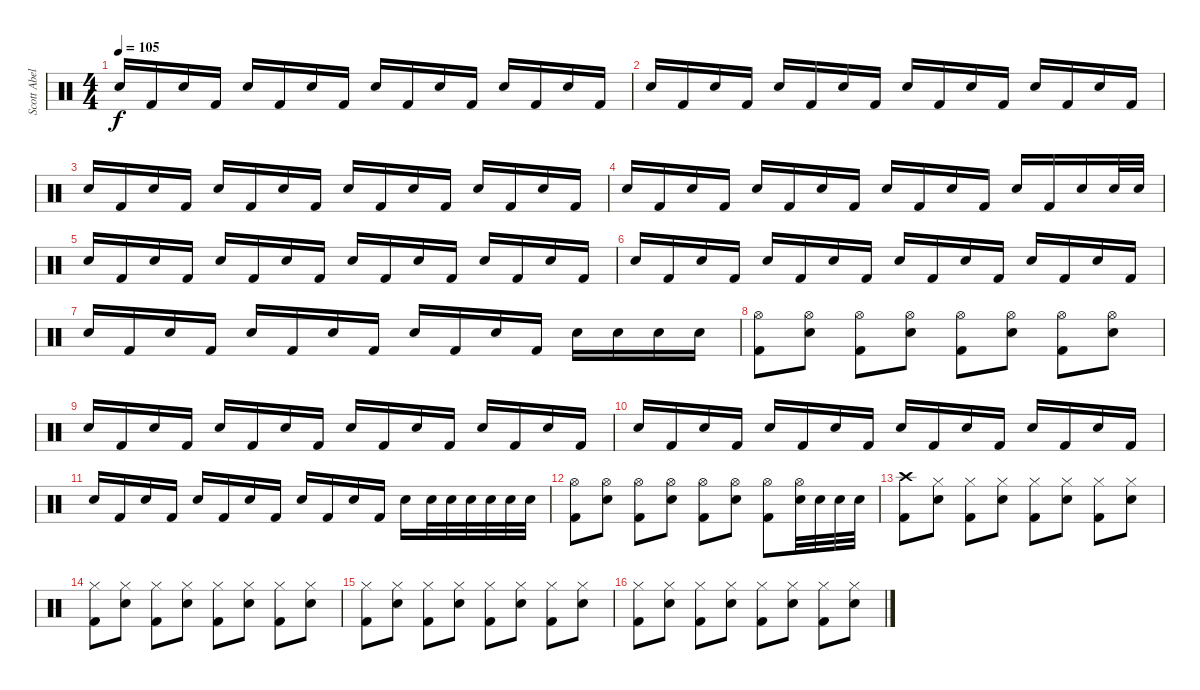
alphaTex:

\track ("Scott Abels - Drums" "Scott Abel") {instrument percussion}
\staff {score}
\articulation defaults
\ts (4 4)
\tempo 105
\clef neutral
\ks c "Electric Snare (hit)".16{dy f} "Kick (hit) 2".16 "Electric Snare (hit)".16 "Kick (hit) 2".16 "Electric Snare (hit)".16 "Kick (hit) 2".16 "Electric Snare (hit)".16 "Kick (hit) 2".16 "Electric Snare (hit)".16 "Kick (hit) 2".16 "Electric Snare (hit)".16 "Kick (hit) 2".16 "Electric Snare (hit)".16 "Kick (hit) 2".16 "Electric Snare (hit)".16 "Kick (hit) 2".16
|
"Electric Snare (hit)".16 "Kick (hit) 2".16 "Electric Snare (hit)".16 "Kick (hit) 2".16 "Electric Snare (hit)".16 "Kick (hit) 2".16 "Electric Snare (hit)".16 "Kick (hit) 2".16 "Electric Snare (hit)".16 "Kick (hit) 2".16 "Electric Snare (hit)".16 "Kick (hit) 2".16 "Electric Snare (hit)".16 "Kick (hit) 2".16 "Electric Snare (hit)".16 "Kick (hit) 2".16 |
"Electric Snare (hit)".16 "Kick (hit) 2".16 "Electric Snare (hit)".16 "Kick (hit) 2".16 "Electric Snare (hit)".16 "Kick (hit) 2".16 "Electric Snare (hit)".16 "Kick (hit) 2".16 "Electric Snare (hit)".16 "Kick (hit) 2".16 "Electric Snare (hit)".16 "Kick (hit) 2".16 "Electric Snare (hit)".16 "Kick (hit) 2".16 "Electric Snare (hit)".16 "Kick (hit) 2".16 |
"Electric Snare (hit)".16 "Kick (hit) 2".16 "Electric Snare (hit)".16 "Kick (hit) 2".16 "Electric Snare (hit)".16 "Kick (hit) 2".16 "Electric Snare (hit)".16 "Kick (hit) 2".16 "Electric Snare (hit)".16 "Kick (hit) 2".16 "Electric Snare (hit)".16 "Kick (hit) 2".16 "Electric Snare (hit)".16 "Kick (hit) 2".16 "Electric Snare (hit)".16 "Electric Snare (hit)".32 "Electric Snare (hit)".32 |
"Electric Snare (hit)".16 "Kick (hit) 2".16 "Electric Snare (hit)".16 "Kick (hit) 2".16 "Electric Snare (hit)".16 "Kick (hit) 2".16 "Electric Snare (hit)".16 "Kick (hit) 2".16 "Electric Snare (hit)".16 "Kick (hit) 2".16 "Electric Snare (hit)".16 "Kick (hit) 2".16 "Electric Snare (hit)".16 "Kick (hit) 2".16 "Electric Snare (hit)".16 "Kick (hit) 2".16 |
"Electric Snare (hit)".16 "Kick (hit) 2".16 "Electric Snare (hit)".16 "Kick (hit) 2".16 "Electric Snare (hit)".16 "Kick (hit) 2".16 "Electric Snare (hit)".16 "Kick (hit) 2".16 "Electric Snare (hit)".16 "Kick (hit) 2".16 "Electric Snare (hit)".16 "Kick (hit) 2".16 "Electric Snare (hit)".16 "Kick (hit) 2".16 "Electric Snare (hit)".16 "Kick (hit) 2".16 |
"Electric Snare (hit)".16 "Kick (hit) 2".16 "Electric Snare (hit)".16 "Kick (hit) 2".16 "Electric Snare (hit)".16 "Kick (hit) 2".16 "Electric Snare (hit)".16 "Kick (hit) 2".16 "Electric Snare (hit)".16 "Kick (hit) 2".16 "Electric Snare (hit)".16 "Kick (hit) 2".16 "Electric Snare (hit)".16 "Electric Snare (hit)".16 "Electric Snare (hit)".16 "Electric Snare (hit)".16 |
("Hi-Hat (open)" "Kick (hit) 2").8 ("Hi-Hat (open)" "Electric Snare (hit)").8 ("Hi-Hat (open)" "Kick (hit) 2").8 ("Hi-Hat (open)" "Electric Snare (hit)").8 ("Hi-Hat (open)" "Kick (hit) 2").8 ("Hi-Hat (open)" "Electric Snare (hit)").8 ("Hi-Hat (open)" "Kick (hit) 2").8 ("Hi-Hat (open)" "Electric Snare (hit)").8 |
"Electric Snare (hit)".16 "Kick (hit) 2".16 "Electric Snare (hit)".16 "Kick (hit) 2".16 "Electric Snare (hit)".16 "Kick (hit) 2".16 "Electric Snare (hit)".16 "Kick (hit) 2".16 "Electric Snare (hit)".16 "Kick (hit) 2".16 "Electric Snare (hit)".16 "Kick (hit) 2".16 "Electric Snare (hit)".16 "Kick (hit) 2".16 "Electric Snare (hit)".16 "Kick (hit) 2".16 |
"Electric Snare (hit)".16 "Kick (hit) 2".16 "Electric Snare (hit)".16 "Kick (hit) 2".16 "Electric Snare (hit)".16 "Kick (hit) 2".16 "Electric Snare (hit)".16 "Kick (hit) 2".16 "Electric Snare (hit)".16 "Kick (hit) 2".16 "Electric Snare (hit)".16 "Kick (hit) 2".16 "Electric Snare (hit)".16 "Kick (hit) 2".16 "Electric Snare (hit)".16 "Kick (hit) 2".16 |
"Electric Snare (hit)".16 "Kick (hit) 2".16 "Electric Snare (hit)".16 "Kick (hit) 2".16 "Electric Snare (hit)".16 "Kick (hit) 2".16 "Electric Snare (hit)".16 "Kick (hit) 2".16 "Electric Snare (hit)".16 "Kick (hit) 2".16 "Electric Snare (hit)".16 "Kick (hit) 2".16 "Electric Snare (hit)".16 "Electric Snare (hit)".32 "Electric Snare (hit)".32 "Electric Snare (hit)".32 "Electric Snare (hit)".32 "Electric Snare (hit)".32 "Electric Snare (hit)".32 |
("Hi-Hat (open)" "Kick (hit) 2").8 ("Hi-Hat (open)" "Electric Snare (hit)").8 ("Hi-Hat (open)" "Kick (hit) 2").8 ("Hi-Hat (open)" "Electric Snare (hit)").8 ("Hi-Hat (open)" "Kick (hit) 2").8 ("Hi-Hat (open)" "Electric Snare (hit)").8 ("Hi-Hat (open)" "Kick (hit) 2").8 ("Hi-Hat (open)" "Electric Snare (hit)").32 "Electric Snare (hit)".32 "Electric Snare (hit)".32 "Electric Snare (hit)".32 |
("Crash high (hit)" "Kick (hit) 2").8 ("Hi-Hat (closed)" "Electric Snare (hit)").8 ("Hi-Hat (closed)" "Kick (hit) 2").8 ("Hi-Hat (closed)" "Electric Snare (hit)").8 ("Hi-Hat (closed)" "Kick (hit) 2").8 ("Hi-Hat (closed)" "Electric Snare (hit)").8 ("Hi-Hat (closed)" "Kick (hit) 2").8 ("Hi-Hat (closed)" "Electric Snare (hit)").8 |
("Hi-Hat (closed)" "Kick (hit) 2").8 ("Hi-Hat (closed)" "Electric Snare (hit)").8 ("Hi-Hat (closed)" "Kick (hit) 2").8 ("Hi-Hat (closed)" "Electric Snare (hit)").8 ("Hi-Hat (closed)" "Kick (hit) 2").8 ("Hi-Hat (closed)" "Electric Snare (hit)").8 ("Hi-Hat (closed)" "Kick (hit) 2").8 ("Hi-Hat (closed)" "Electric Snare (hit)").8 |
("Hi-Hat (closed)" "Kick (hit) 2").8 ("Hi-Hat (closed)" "Electric Snare (hit)").8 ("Hi-Hat (closed)" "Kick (hit) 2").8 ("Hi-Hat (closed)" "Electric Snare (hit)").8 ("Hi-Hat (closed)" "Kick (hit) 2").8 ("Hi-Hat (closed)" "Electric Snare (hit)").8 ("Hi-Hat (closed)" "Kick (hit) 2").8 ("Hi-Hat (closed)" "Electric Snare (hit)").8 |
("Hi-Hat (closed)" "Kick (hit) 2").8 ("Hi-Hat (closed)" "Electric Snare (hit)").8 ("Hi-Hat (closed)" "Kick (hit) 2").8 ("Hi-Hat (closed)" "Electric Snare (hit)").8 ("Hi-Hat (closed)" "Kick (hit) 2").8 ("Hi-Hat (closed)" "Electric Snare (hit)").8 ("Hi-Hat (closed)" "Kick (hit) 2").8 ("Hi-Hat (closed)" "Electric Snare (hit)").8
